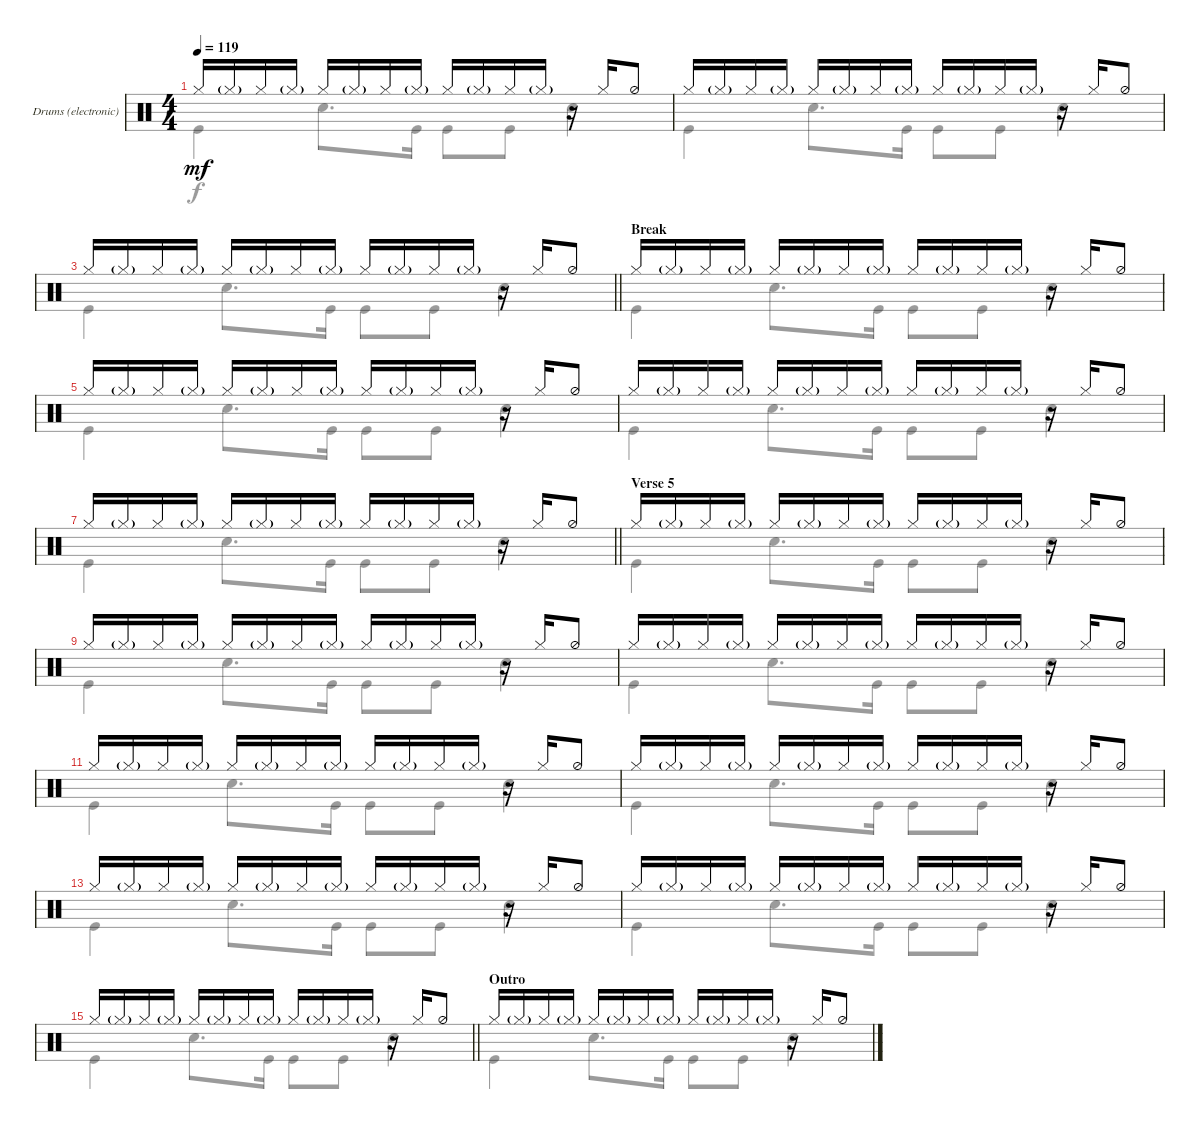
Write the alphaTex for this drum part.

\defaultSystemsLayout 4
\bracketExtendMode groupsimilarinstruments
\useSystemSignSeparator
\multiBarRest
\multiTrackTrackNamePolicy allsystems
\firstSystemTrackNameMode fullname
\firstSystemTrackNameOrientation horizontal
\otherSystemsTrackNameOrientation horizontal
\defaultBarNumberDisplay FirstOfSystem
\track ("Drums (electronic)" "Dr.") {multiBarRest instrument percussion}
\staff {score}
\articulation defaults
\voice
\ts (4 4)
\tempo 119
\clef neutral
\ks aminor "Hi-Hat (closed)".16{dy mf} "Hi-Hat (closed)"{g}.16 "Hi-Hat (closed)".16 "Hi-Hat (closed)"{g}.16 "Hi-Hat (closed)".16 "Hi-Hat (closed)"{g}.16 "Hi-Hat (closed)".16 "Hi-Hat (closed)"{g}.16 "Hi-Hat (closed)".16 "Hi-Hat (closed)"{g}.16 "Hi-Hat (closed)".16 "Hi-Hat (closed)"{g}.16
r.16 "Hi-Hat (closed)".16 "Hi-Hat (half)".8 |
"Hi-Hat (closed)".16 "Hi-Hat (closed)"{g}.16 "Hi-Hat (closed)".16 "Hi-Hat (closed)"{g}.16 "Hi-Hat (closed)".16 "Hi-Hat (closed)"{g}.16 "Hi-Hat (closed)".16 "Hi-Hat (closed)"{g}.16 "Hi-Hat (closed)".16 "Hi-Hat (closed)"{g}.16 "Hi-Hat (closed)".16 "Hi-Hat (closed)"{g}.16 r.16 "Hi-Hat (closed)".16 "Hi-Hat (half)".8 |
\barLineRight lightlight "Hi-Hat (closed)".16 "Hi-Hat (closed)"{g}.16 "Hi-Hat (closed)".16 "Hi-Hat (closed)"{g}.16 "Hi-Hat (closed)".16 "Hi-Hat (closed)"{g}.16 "Hi-Hat (closed)".16 "Hi-Hat (closed)"{g}.16 "Hi-Hat (closed)".16 "Hi-Hat (closed)"{g}.16 "Hi-Hat (closed)".16 "Hi-Hat (closed)"{g}.16
r.16 "Hi-Hat (closed)".16 "Hi-Hat (half)".8 |
\section ("" "Break")
"Hi-Hat (closed)".16 "Hi-Hat (closed)"{g}.16 "Hi-Hat (closed)".16 "Hi-Hat (closed)"{g}.16 "Hi-Hat (closed)".16 "Hi-Hat (closed)"{g}.16 "Hi-Hat (closed)".16 "Hi-Hat (closed)"{g}.16 "Hi-Hat (closed)".16 "Hi-Hat (closed)"{g}.16 "Hi-Hat (closed)".16 "Hi-Hat (closed)"{g}.16 r.16 "Hi-Hat (closed)".16 "Hi-Hat (half)".8 |
"Hi-Hat (closed)".16 "Hi-Hat (closed)"{g}.16 "Hi-Hat (closed)".16 "Hi-Hat (closed)"{g}.16 "Hi-Hat (closed)".16 "Hi-Hat (closed)"{g}.16 "Hi-Hat (closed)".16 "Hi-Hat (closed)"{g}.16 "Hi-Hat (closed)".16 "Hi-Hat (closed)"{g}.16 "Hi-Hat (closed)".16 "Hi-Hat (closed)"{g}.16 r.16 "Hi-Hat (closed)".16 "Hi-Hat (half)".8 |
"Hi-Hat (closed)".16 "Hi-Hat (closed)"{g}.16 "Hi-Hat (closed)".16 "Hi-Hat (closed)"{g}.16 "Hi-Hat (closed)".16 "Hi-Hat (closed)"{g}.16 "Hi-Hat (closed)".16 "Hi-Hat (closed)"{g}.16 "Hi-Hat (closed)".16 "Hi-Hat (closed)"{g}.16 "Hi-Hat (closed)".16 "Hi-Hat (closed)"{g}.16 r.16 "Hi-Hat (closed)".16 "Hi-Hat (half)".8 |
\barLineRight lightlight "Hi-Hat (closed)".16 "Hi-Hat (closed)"{g}.16 "Hi-Hat (closed)".16 "Hi-Hat (closed)"{g}.16 "Hi-Hat (closed)".16 "Hi-Hat (closed)"{g}.16 "Hi-Hat (closed)".16 "Hi-Hat (closed)"{g}.16 "Hi-Hat (closed)".16 "Hi-Hat (closed)"{g}.16 "Hi-Hat (closed)".16 "Hi-Hat (closed)"{g}.16
r.16 "Hi-Hat (closed)".16 "Hi-Hat (half)".8 |
\section ("" "Verse 5")
"Hi-Hat (closed)".16 "Hi-Hat (closed)"{g}.16 "Hi-Hat (closed)".16 "Hi-Hat (closed)"{g}.16 "Hi-Hat (closed)".16 "Hi-Hat (closed)"{g}.16 "Hi-Hat (closed)".16 "Hi-Hat (closed)"{g}.16 "Hi-Hat (closed)".16 "Hi-Hat (closed)"{g}.16 "Hi-Hat (closed)".16 "Hi-Hat (closed)"{g}.16 r.16 "Hi-Hat (closed)".16 "Hi-Hat (half)".8 |
"Hi-Hat (closed)".16 "Hi-Hat (closed)"{g}.16 "Hi-Hat (closed)".16 "Hi-Hat (closed)"{g}.16 "Hi-Hat (closed)".16 "Hi-Hat (closed)"{g}.16 "Hi-Hat (closed)".16 "Hi-Hat (closed)"{g}.16 "Hi-Hat (closed)".16 "Hi-Hat (closed)"{g}.16 "Hi-Hat (closed)".16 "Hi-Hat (closed)"{g}.16 r.16 "Hi-Hat (closed)".16 "Hi-Hat (half)".8 |
"Hi-Hat (closed)".16 "Hi-Hat (closed)"{g}.16 "Hi-Hat (closed)".16 "Hi-Hat (closed)"{g}.16 "Hi-Hat (closed)".16 "Hi-Hat (closed)"{g}.16 "Hi-Hat (closed)".16 "Hi-Hat (closed)"{g}.16 "Hi-Hat (closed)".16 "Hi-Hat (closed)"{g}.16 "Hi-Hat (closed)".16 "Hi-Hat (closed)"{g}.16 r.16 "Hi-Hat (closed)".16 "Hi-Hat (half)".8 |
"Hi-Hat (closed)".16 "Hi-Hat (closed)"{g}.16 "Hi-Hat (closed)".16 "Hi-Hat (closed)"{g}.16 "Hi-Hat (closed)".16 "Hi-Hat (closed)"{g}.16 "Hi-Hat (closed)".16 "Hi-Hat (closed)"{g}.16 "Hi-Hat (closed)".16 "Hi-Hat (closed)"{g}.16 "Hi-Hat (closed)".16 "Hi-Hat (closed)"{g}.16 r.16 "Hi-Hat (closed)".16 "Hi-Hat (half)".8 |
"Hi-Hat (closed)".16 "Hi-Hat (closed)"{g}.16 "Hi-Hat (closed)".16 "Hi-Hat (closed)"{g}.16 "Hi-Hat (closed)".16 "Hi-Hat (closed)"{g}.16 "Hi-Hat (closed)".16 "Hi-Hat (closed)"{g}.16 "Hi-Hat (closed)".16 "Hi-Hat (closed)"{g}.16 "Hi-Hat (closed)".16 "Hi-Hat (closed)"{g}.16 r.16 "Hi-Hat (closed)".16 "Hi-Hat (half)".8 |
"Hi-Hat (closed)".16 "Hi-Hat (closed)"{g}.16 "Hi-Hat (closed)".16 "Hi-Hat (closed)"{g}.16 "Hi-Hat (closed)".16 "Hi-Hat (closed)"{g}.16 "Hi-Hat (closed)".16 "Hi-Hat (closed)"{g}.16 "Hi-Hat (closed)".16 "Hi-Hat (closed)"{g}.16 "Hi-Hat (closed)".16 "Hi-Hat (closed)"{g}.16 r.16 "Hi-Hat (closed)".16 "Hi-Hat (half)".8 |
"Hi-Hat (closed)".16 "Hi-Hat (closed)"{g}.16 "Hi-Hat (closed)".16 "Hi-Hat (closed)"{g}.16 "Hi-Hat (closed)".16 "Hi-Hat (closed)"{g}.16 "Hi-Hat (closed)".16 "Hi-Hat (closed)"{g}.16 "Hi-Hat (closed)".16 "Hi-Hat (closed)"{g}.16 "Hi-Hat (closed)".16 "Hi-Hat (closed)"{g}.16 r.16 "Hi-Hat (closed)".16 "Hi-Hat (half)".8 |
\barLineRight lightlight "Hi-Hat (closed)".16 "Hi-Hat (closed)"{g}.16 "Hi-Hat (closed)".16 "Hi-Hat (closed)"{g}.16 "Hi-Hat (closed)".16 "Hi-Hat (closed)"{g}.16 "Hi-Hat (closed)".16 "Hi-Hat (closed)"{g}.16 "Hi-Hat (closed)".16 "Hi-Hat (closed)"{g}.16 "Hi-Hat (closed)".16 "Hi-Hat (closed)"{g}.16
r.16 "Hi-Hat (closed)".16 "Hi-Hat (half)".8 |
\section ("" "Outro")
"Hi-Hat (closed)".16 "Hi-Hat (closed)"{g}.16 "Hi-Hat (closed)".16 "Hi-Hat (closed)"{g}.16 "Hi-Hat (closed)".16 "Hi-Hat (closed)"{g}.16 "Hi-Hat (closed)".16 "Hi-Hat (closed)"{g}.16 "Hi-Hat (closed)".16 "Hi-Hat (closed)"{g}.16 "Hi-Hat (closed)".16 "Hi-Hat (closed)"{g}.16 r.16 "Hi-Hat (closed)".16 "Hi-Hat (half)".8
\voice
\clef neutral
\ottava regular
\simile none
\ks aminor "Kick (hit)".4{dy f} "Snare (hit) 2".8{d} "Kick (hit)".16 "Kick (hit)".8 "Kick (hit)".8 "Snare (hit) 2".4
|
"Kick (hit)".4 "Snare (hit) 2".8{d} "Kick (hit)".16 "Kick (hit)".8 "Kick (hit)".8 "Snare (hit) 2".4 |
\barLineRight lightlight "Kick (hit)".4 "Snare (hit) 2".8{d} "Kick (hit)".16 "Kick (hit)".8 "Kick (hit)".8 "Snare (hit) 2".4
|
"Kick (hit)".4 "Snare (hit) 2".8{d} "Kick (hit)".16 "Kick (hit)".8 "Kick (hit)".8 "Snare (hit) 2".4 |
"Kick (hit)".4 "Snare (hit) 2".8{d} "Kick (hit)".16 "Kick (hit)".8 "Kick (hit)".8 "Snare (hit) 2".4 |
"Kick (hit)".4 "Snare (hit) 2".8{d} "Kick (hit)".16 "Kick (hit)".8 "Kick (hit)".8 "Snare (hit) 2".4 |
\barLineRight lightlight "Kick (hit)".4 "Snare (hit) 2".8{d} "Kick (hit)".16 "Kick (hit)".8 "Kick (hit)".8 "Snare (hit) 2".4
|
"Kick (hit)".4 "Snare (hit) 2".8{d} "Kick (hit)".16 "Kick (hit)".8 "Kick (hit)".8 "Snare (hit) 2".4 |
"Kick (hit)".4 "Snare (hit) 2".8{d} "Kick (hit)".16 "Kick (hit)".8 "Kick (hit)".8 "Snare (hit) 2".4 |
"Kick (hit)".4 "Snare (hit) 2".8{d} "Kick (hit)".16 "Kick (hit)".8 "Kick (hit)".8 "Snare (hit) 2".4 |
"Kick (hit)".4 "Snare (hit) 2".8{d} "Kick (hit)".16 "Kick (hit)".8 "Kick (hit)".8 "Snare (hit) 2".4 |
"Kick (hit)".4 "Snare (hit) 2".8{d} "Kick (hit)".16 "Kick (hit)".8 "Kick (hit)".8 "Snare (hit) 2".4 |
"Kick (hit)".4 "Snare (hit) 2".8{d} "Kick (hit)".16 "Kick (hit)".8 "Kick (hit)".8 "Snare (hit) 2".4 |
"Kick (hit)".4 "Snare (hit) 2".8{d} "Kick (hit)".16 "Kick (hit)".8 "Kick (hit)".8 "Snare (hit) 2".4 |
\barLineRight lightlight "Kick (hit)".4 "Snare (hit) 2".8{d} "Kick (hit)".16 "Kick (hit)".8 "Kick (hit)".8 "Snare (hit) 2".4
|
"Kick (hit)".4 "Snare (hit) 2".8{d} "Kick (hit)".16 "Kick (hit)".8 "Kick (hit)".8 "Snare (hit) 2".4
